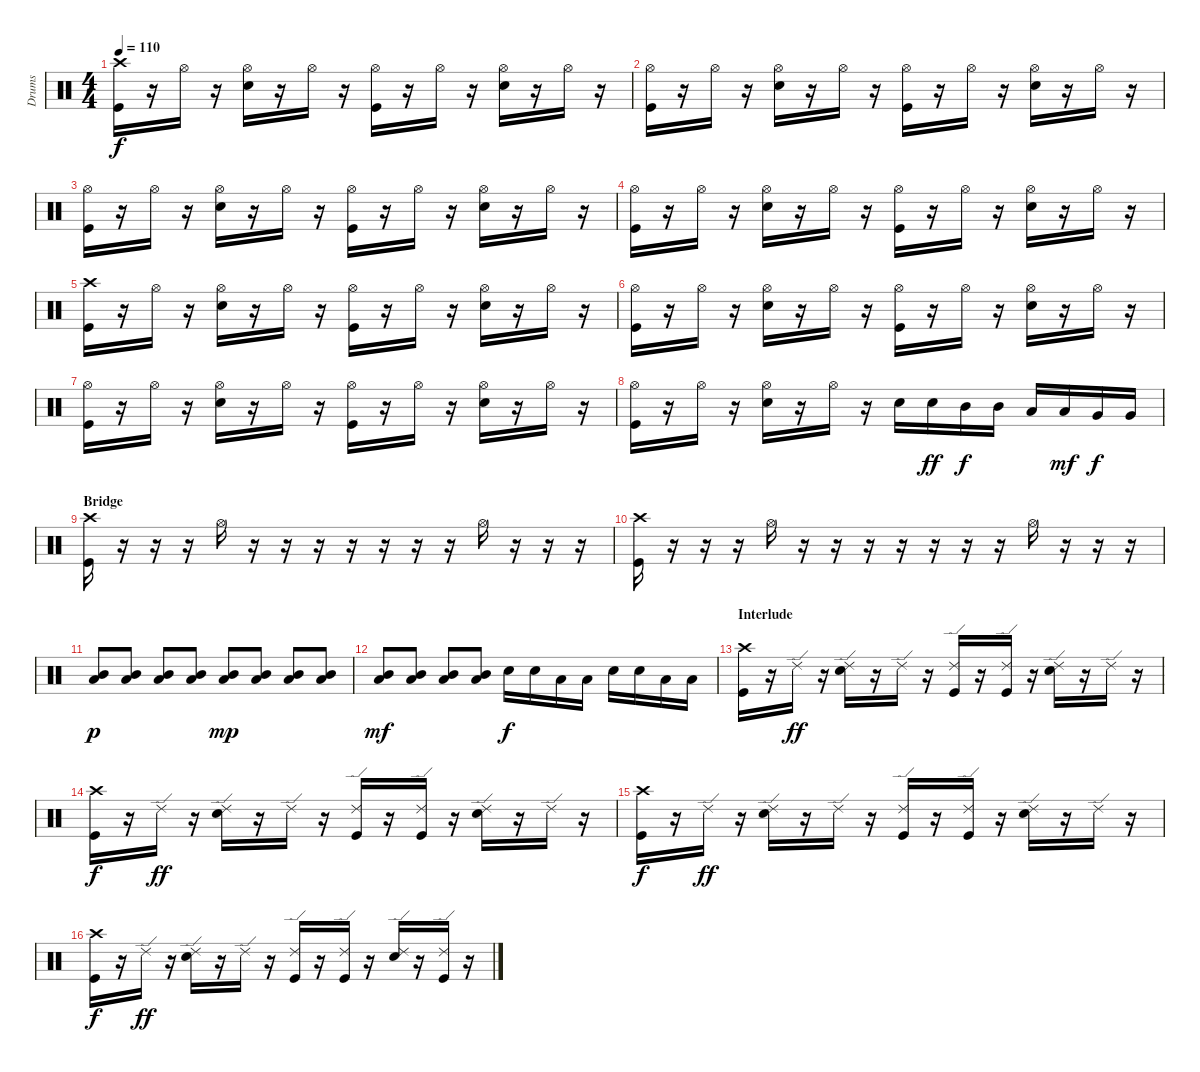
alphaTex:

\track ("Drums" "Drums") {instrument percussion}
\staff {score}
\articulation defaults
\ts (4 4)
\tempo 110
\clef neutral
\ks c
("Crash high (hit)" "Kick (hit)").16{dy f} r.16 "Hi-Hat (open)".16 r.16 ("Hi-Hat (open)" "Snare (hit) 2").16 r.16 "Hi-Hat (open)".16 r.16 ("Hi-Hat (open)" "Kick (hit)").16 r.16 "Hi-Hat (open)".16 r.16 ("Hi-Hat (open)" "Snare (hit) 2").16 r.16 "Hi-Hat (open)".16 r.16 |
("Hi-Hat (open)" "Kick (hit)").16 r.16 "Hi-Hat (open)".16 r.16 ("Hi-Hat (open)" "Snare (hit) 2").16 r.16 "Hi-Hat (open)".16 r.16 ("Hi-Hat (open)" "Kick (hit)").16 r.16 "Hi-Hat (open)".16 r.16 ("Hi-Hat (open)" "Snare (hit) 2").16 r.16 "Hi-Hat (open)".16 r.16 |
("Hi-Hat (open)" "Kick (hit)").16 r.16 "Hi-Hat (open)".16 r.16 ("Hi-Hat (open)" "Snare (hit) 2").16 r.16 "Hi-Hat (open)".16 r.16 ("Hi-Hat (open)" "Kick (hit)").16 r.16 "Hi-Hat (open)".16 r.16 ("Hi-Hat (open)" "Snare (hit) 2").16 r.16 "Hi-Hat (open)".16 r.16 |
("Hi-Hat (open)" "Kick (hit)").16 r.16 "Hi-Hat (open)".16 r.16 ("Hi-Hat (open)" "Snare (hit) 2").16 r.16 "Hi-Hat (open)".16 r.16 ("Hi-Hat (open)" "Kick (hit)").16 r.16 "Hi-Hat (open)".16 r.16 ("Hi-Hat (open)" "Snare (hit) 2").16 r.16 "Hi-Hat (open)".16 r.16 |
("Crash high (hit)" "Kick (hit)").16 r.16 "Hi-Hat (open)".16 r.16 ("Hi-Hat (open)" "Snare (hit) 2").16 r.16 "Hi-Hat (open)".16 r.16 ("Hi-Hat (open)" "Kick (hit)").16 r.16 "Hi-Hat (open)".16 r.16 ("Hi-Hat (open)" "Snare (hit) 2").16 r.16 "Hi-Hat (open)".16 r.16 |
("Hi-Hat (open)" "Kick (hit)").16 r.16 "Hi-Hat (open)".16 r.16 ("Hi-Hat (open)" "Snare (hit) 2").16 r.16 "Hi-Hat (open)".16 r.16 ("Hi-Hat (open)" "Kick (hit)").16 r.16 "Hi-Hat (open)".16 r.16 ("Hi-Hat (open)" "Snare (hit) 2").16 r.16 "Hi-Hat (open)".16 r.16 |
("Hi-Hat (open)" "Kick (hit)").16 r.16 "Hi-Hat (open)".16 r.16 ("Hi-Hat (open)" "Snare (hit) 2").16 r.16 "Hi-Hat (open)".16 r.16 ("Hi-Hat (open)" "Kick (hit)").16 r.16 "Hi-Hat (open)".16 r.16 ("Hi-Hat (open)" "Snare (hit) 2").16 r.16 "Hi-Hat (open)".16 r.16 |
("Hi-Hat (open)" "Kick (hit)").16 r.16 "Hi-Hat (open)".16 r.16 ("Hi-Hat (open)" "Snare (hit) 2").16 r.16 "Hi-Hat (open)".16 r.16 "Snare (hit) 2".16 "Snare (hit) 2".16{dy ff} "Mid Tom (hit)".16{dy f} "Mid Tom (hit)".16 "Low Tom (hit)".16 "Low Tom (hit)".16{dy mf} "Very Low Tom (hit)".16{dy f} "Very Low Tom (hit)".16 |
\section ("" "Bridge")
("Crash high (hit)" "Kick (hit)").16 r.16 r.16 r.16 "Hi-Hat (open)".16 r.16 r.16 r.16 r.16 r.16 r.16 r.16 "Hi-Hat (open)".16 r.16 r.16 r.16 |
("Crash high (hit)" "Kick (hit)").16 r.16 r.16 r.16 "Hi-Hat (open)".16 r.16 r.16 r.16 r.16 r.16 r.16 r.16 "Hi-Hat (open)".16 r.16 r.16 r.16 |
("Mid Tom (hit)" "Low Tom (hit)").8{dy p} ("Mid Tom (hit)" "Low Tom (hit)").8 ("Mid Tom (hit)" "Low Tom (hit)").8 ("Mid Tom (hit)" "Low Tom (hit)").8 ("Mid Tom (hit)" "Low Tom (hit)").8{dy mp} ("Mid Tom (hit)" "Low Tom (hit)").8 ("Mid Tom (hit)" "Low Tom (hit)").8 ("Mid Tom (hit)" "Low Tom (hit)").8 |
("Mid Tom (hit)" "Low Tom (hit)").8{dy mf} ("Mid Tom (hit)" "Low Tom (hit)").8 ("Mid Tom (hit)" "Low Tom (hit)").8 ("Mid Tom (hit)" "Low Tom (hit)").8 "Snare (hit) 2".16{dy f} "Snare (hit) 2".16 "Low Tom (hit)".16 "Low Tom (hit)".16 "Snare (hit) 2".16 "Snare (hit) 2".16 "Low Tom (hit)".16 "Low Tom (hit)".16 |
\section ("" "Interlude")
("Crash high (hit)" "Kick (hit)").16 r.16 "Ride (edge) 2".16{dy ff} r.16 ("Ride (edge) 2" "Snare (hit) 2").16 r.16 "Ride (edge) 2".16 r.16 ("Ride (edge) 2" "Kick (hit)").16 r.16 ("Ride (edge) 2" "Kick (hit)").16 r.16 ("Ride (edge) 2" "Snare (hit) 2").16 r.16 "Ride (edge) 2".16 r.16 |
("Crash high (hit)" "Kick (hit)").16{dy f} r.16 "Ride (edge) 2".16{dy ff} r.16 ("Ride (edge) 2" "Snare (hit) 2").16 r.16 "Ride (edge) 2".16 r.16 ("Ride (edge) 2" "Kick (hit)").16 r.16 ("Ride (edge) 2" "Kick (hit)").16 r.16 ("Ride (edge) 2" "Snare (hit) 2").16 r.16 "Ride (edge) 2".16 r.16 |
("Crash high (hit)" "Kick (hit)").16{dy f} r.16 "Ride (edge) 2".16{dy ff} r.16 ("Ride (edge) 2" "Snare (hit) 2").16 r.16 "Ride (edge) 2".16 r.16 ("Ride (edge) 2" "Kick (hit)").16 r.16 ("Ride (edge) 2" "Kick (hit)").16 r.16 ("Ride (edge) 2" "Snare (hit) 2").16 r.16 "Ride (edge) 2".16 r.16 |
("Crash high (hit)" "Kick (hit)").16{dy f} r.16 "Ride (edge) 2".16{dy ff} r.16 ("Ride (edge) 2" "Snare (hit) 2").16 r.16 "Ride (edge) 2".16 r.16 ("Ride (edge) 2" "Kick (hit)").16 r.16 ("Ride (edge) 2" "Kick (hit)").16 r.16 ("Ride (edge) 2" "Snare (hit) 2").16 r.16 ("Ride (edge) 2" "Kick (hit)").16 r.16
